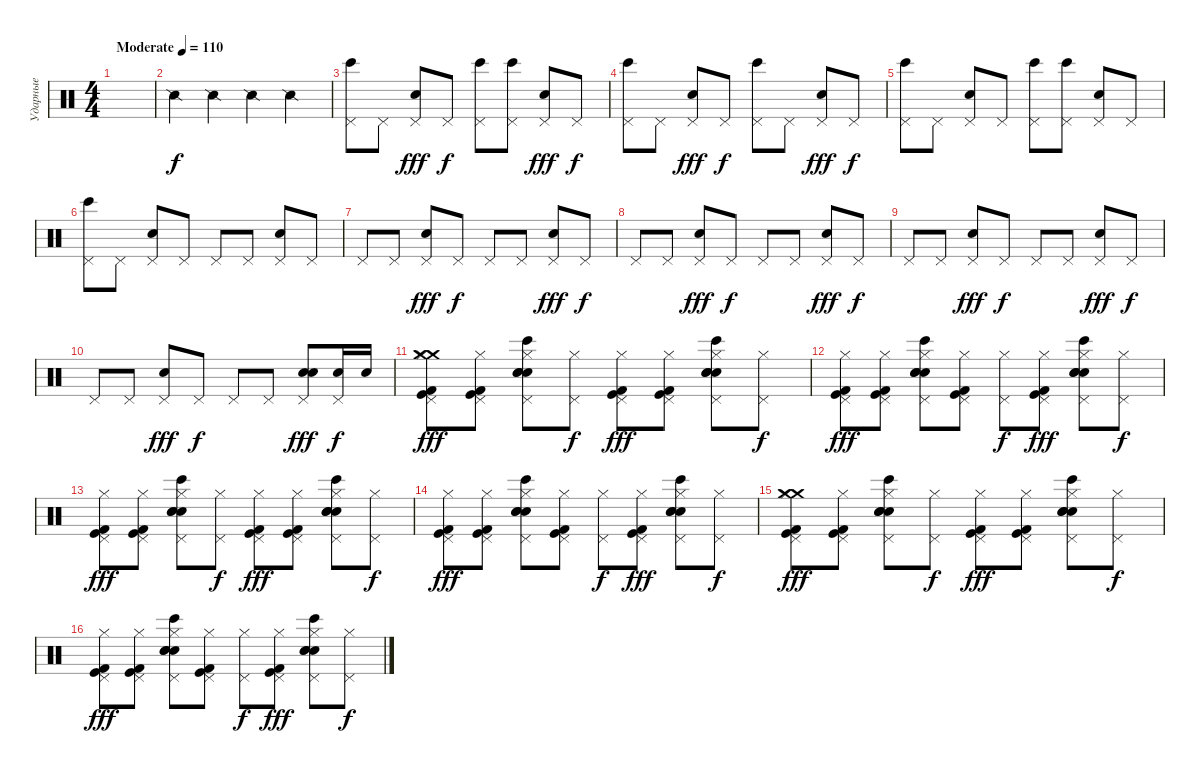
\track ("Ударные" "Ударные") {instrument percussion}
\staff {score}
\articulation defaults
\ts (4 4)
\tempo (110 "Moderate")
\clef neutral
\ks c
|
"Snare (side stick) 2".4 "Snare (side stick) 2".4 "Snare (side stick) 2".4 "Snare (side stick) 2".4 |
("Bongo High (hit)" "Pedal Hi-Hat (hit)").8 "Pedal Hi-Hat (hit)".8 ("Hand Clap (hit)" "Pedal Hi-Hat (hit)").8{dy fff} "Pedal Hi-Hat (hit)".8{dy f} ("Bongo High (hit)" "Pedal Hi-Hat (hit)").8 ("Bongo High (hit)" "Pedal Hi-Hat (hit)").8 ("Hand Clap (hit)" "Pedal Hi-Hat (hit)").8{dy fff} "Pedal Hi-Hat (hit)".8{dy f} |
("Bongo High (hit)" "Pedal Hi-Hat (hit)").8 "Pedal Hi-Hat (hit)".8 ("Hand Clap (hit)" "Pedal Hi-Hat (hit)").8{dy fff} "Pedal Hi-Hat (hit)".8{dy f} ("Bongo High (hit)" "Pedal Hi-Hat (hit)").8 "Pedal Hi-Hat (hit)".8 ("Hand Clap (hit)" "Pedal Hi-Hat (hit)").8{dy fff} "Pedal Hi-Hat (hit)".8{dy f} |
("Bongo High (hit)" "Pedal Hi-Hat (hit)").8 "Pedal Hi-Hat (hit)".8 ("Hand Clap (hit)" "Pedal Hi-Hat (hit)").8 "Pedal Hi-Hat (hit)".8 ("Bongo High (hit)" "Pedal Hi-Hat (hit)").8 ("Bongo High (hit)" "Pedal Hi-Hat (hit)").8 ("Hand Clap (hit)" "Pedal Hi-Hat (hit)").8 "Pedal Hi-Hat (hit)".8 |
("Bongo High (hit)" "Pedal Hi-Hat (hit)").8 "Pedal Hi-Hat (hit)".8 ("Hand Clap (hit)" "Pedal Hi-Hat (hit)").8 "Pedal Hi-Hat (hit)".8 "Pedal Hi-Hat (hit)".8 "Pedal Hi-Hat (hit)".8 ("Hand Clap (hit)" "Pedal Hi-Hat (hit)").8 "Pedal Hi-Hat (hit)".8 |
"Pedal Hi-Hat (hit)".8 "Pedal Hi-Hat (hit)".8 ("Hand Clap (hit)" "Pedal Hi-Hat (hit)").8{dy fff} "Pedal Hi-Hat (hit)".8{dy f} "Pedal Hi-Hat (hit)".8 "Pedal Hi-Hat (hit)".8 ("Hand Clap (hit)" "Pedal Hi-Hat (hit)").8{dy fff} "Pedal Hi-Hat (hit)".8{dy f} |
"Pedal Hi-Hat (hit)".8 "Pedal Hi-Hat (hit)".8 ("Hand Clap (hit)" "Pedal Hi-Hat (hit)").8{dy fff} "Pedal Hi-Hat (hit)".8{dy f} "Pedal Hi-Hat (hit)".8 "Pedal Hi-Hat (hit)".8 ("Hand Clap (hit)" "Pedal Hi-Hat (hit)").8{dy fff} "Pedal Hi-Hat (hit)".8{dy f} |
"Pedal Hi-Hat (hit)".8 "Pedal Hi-Hat (hit)".8 ("Hand Clap (hit)" "Pedal Hi-Hat (hit)").8{dy fff} "Pedal Hi-Hat (hit)".8{dy f} "Pedal Hi-Hat (hit)".8 "Pedal Hi-Hat (hit)".8 ("Hand Clap (hit)" "Pedal Hi-Hat (hit)").8{dy fff} "Pedal Hi-Hat (hit)".8{dy f} |
"Pedal Hi-Hat (hit)".8 "Pedal Hi-Hat (hit)".8 ("Hand Clap (hit)" "Pedal Hi-Hat (hit)").8{dy fff} "Pedal Hi-Hat (hit)".8{dy f} "Pedal Hi-Hat (hit)".8 "Pedal Hi-Hat (hit)".8 ("Hand Clap (hit)" "Snare (hit) 2" "Pedal Hi-Hat (hit)").8{dy fff} ("Snare (hit) 2" "Pedal Hi-Hat (hit)").16{dy f} "Snare (hit) 2".16 |
("Crash medium (hit)" "Crash medium (hit)" "Kick (hit) 2" "Kick (hit)" "Hi-Hat (closed)" "Pedal Hi-Hat (hit)").8{dy fff} ("Kick (hit) 2" "Kick (hit)" "Hi-Hat (closed)" "Pedal Hi-Hat (hit)").8 ("Bongo High (hit)" "Snare (hit) 2" "Snare (hit) 2" "Snare (hit) 2" "Hi-Hat (closed)" "Pedal Hi-Hat (hit)").8 ("Hi-Hat (closed)" "Pedal Hi-Hat (hit)").8{dy f} ("Kick (hit) 2" "Kick (hit)" "Hi-Hat (closed)" "Pedal Hi-Hat (hit)").8{dy fff} ("Kick (hit) 2" "Kick (hit)" "Hi-Hat (closed)" "Pedal Hi-Hat (hit)").8 ("Bongo High (hit)" "Snare (hit) 2" "Snare (hit) 2" "Snare (hit) 2" "Hi-Hat (closed)" "Pedal Hi-Hat (hit)").8 ("Hi-Hat (closed)" "Pedal Hi-Hat (hit)").8{dy f} |
("Kick (hit) 2" "Kick (hit)" "Hi-Hat (closed)" "Pedal Hi-Hat (hit)").8{dy fff} ("Kick (hit) 2" "Kick (hit)" "Hi-Hat (closed)" "Pedal Hi-Hat (hit)").8 ("Bongo High (hit)" "Snare (hit) 2" "Snare (hit) 2" "Snare (hit) 2" "Hi-Hat (closed)" "Pedal Hi-Hat (hit)").8 ("Kick (hit) 2" "Kick (hit)" "Hi-Hat (closed)" "Pedal Hi-Hat (hit)").8 ("Hi-Hat (closed)" "Pedal Hi-Hat (hit)").8{dy f} ("Kick (hit) 2" "Kick (hit)" "Hi-Hat (closed)" "Pedal Hi-Hat (hit)").8{dy fff} ("Bongo High (hit)" "Snare (hit) 2" "Snare (hit) 2" "Snare (hit) 2" "Hi-Hat (closed)" "Pedal Hi-Hat (hit)").8 ("Hi-Hat (closed)" "Pedal Hi-Hat (hit)").8{dy f} |
("Kick (hit) 2" "Kick (hit)" "Hi-Hat (closed)" "Pedal Hi-Hat (hit)").8{dy fff} ("Kick (hit) 2" "Kick (hit)" "Hi-Hat (closed)" "Pedal Hi-Hat (hit)").8 ("Bongo High (hit)" "Snare (hit) 2" "Snare (hit) 2" "Snare (hit) 2" "Hi-Hat (closed)" "Pedal Hi-Hat (hit)").8 ("Hi-Hat (closed)" "Pedal Hi-Hat (hit)").8{dy f} ("Kick (hit) 2" "Kick (hit)" "Hi-Hat (closed)" "Pedal Hi-Hat (hit)").8{dy fff} ("Kick (hit) 2" "Kick (hit)" "Hi-Hat (closed)" "Pedal Hi-Hat (hit)").8 ("Bongo High (hit)" "Snare (hit) 2" "Snare (hit) 2" "Snare (hit) 2" "Hi-Hat (closed)" "Pedal Hi-Hat (hit)").8 ("Hi-Hat (closed)" "Pedal Hi-Hat (hit)").8{dy f} |
("Kick (hit) 2" "Kick (hit)" "Hi-Hat (closed)" "Pedal Hi-Hat (hit)").8{dy fff} ("Kick (hit) 2" "Kick (hit)" "Hi-Hat (closed)" "Pedal Hi-Hat (hit)").8 ("Bongo High (hit)" "Snare (hit) 2" "Snare (hit) 2" "Snare (hit) 2" "Hi-Hat (closed)" "Pedal Hi-Hat (hit)").8 ("Kick (hit) 2" "Kick (hit)" "Hi-Hat (closed)" "Pedal Hi-Hat (hit)").8 ("Hi-Hat (closed)" "Pedal Hi-Hat (hit)").8{dy f} ("Kick (hit) 2" "Kick (hit)" "Hi-Hat (closed)" "Pedal Hi-Hat (hit)").8{dy fff} ("Bongo High (hit)" "Snare (hit) 2" "Snare (hit) 2" "Snare (hit) 2" "Hi-Hat (closed)" "Pedal Hi-Hat (hit)").8 ("Hi-Hat (closed)" "Pedal Hi-Hat (hit)").8{dy f} |
("Crash medium (hit)" "Crash medium (hit)" "Kick (hit) 2" "Kick (hit)" "Hi-Hat (closed)" "Pedal Hi-Hat (hit)").8{dy fff} ("Kick (hit) 2" "Kick (hit)" "Hi-Hat (closed)" "Pedal Hi-Hat (hit)").8 ("Bongo High (hit)" "Snare (hit) 2" "Snare (hit) 2" "Snare (hit) 2" "Hi-Hat (closed)" "Pedal Hi-Hat (hit)").8 ("Hi-Hat (closed)" "Pedal Hi-Hat (hit)").8{dy f} ("Kick (hit) 2" "Kick (hit)" "Hi-Hat (closed)" "Pedal Hi-Hat (hit)").8{dy fff} ("Kick (hit) 2" "Kick (hit)" "Hi-Hat (closed)" "Pedal Hi-Hat (hit)").8 ("Bongo High (hit)" "Snare (hit) 2" "Snare (hit) 2" "Snare (hit) 2" "Hi-Hat (closed)" "Pedal Hi-Hat (hit)").8 ("Hi-Hat (closed)" "Pedal Hi-Hat (hit)").8{dy f} |
("Kick (hit) 2" "Kick (hit)" "Hi-Hat (closed)" "Pedal Hi-Hat (hit)").8{dy fff} ("Kick (hit) 2" "Kick (hit)" "Hi-Hat (closed)" "Pedal Hi-Hat (hit)").8 ("Bongo High (hit)" "Snare (hit) 2" "Snare (hit) 2" "Snare (hit) 2" "Hi-Hat (closed)" "Pedal Hi-Hat (hit)").8 ("Kick (hit) 2" "Kick (hit)" "Hi-Hat (closed)" "Pedal Hi-Hat (hit)").8 ("Hi-Hat (closed)" "Pedal Hi-Hat (hit)").8{dy f} ("Kick (hit) 2" "Kick (hit)" "Hi-Hat (closed)" "Pedal Hi-Hat (hit)").8{dy fff} ("Bongo High (hit)" "Snare (hit) 2" "Snare (hit) 2" "Snare (hit) 2" "Hi-Hat (closed)" "Pedal Hi-Hat (hit)").8 ("Hi-Hat (closed)" "Pedal Hi-Hat (hit)").8{dy f}
